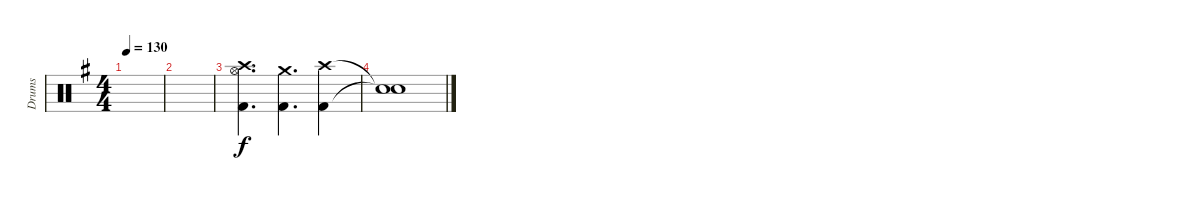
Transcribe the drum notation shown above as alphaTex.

\track ("Drums" "Drums") {instrument percussion}
\staff {score}
\articulation defaults
\ts (4 4)
\tempo 130
\clef neutral
\ks g
|
|
("Hi-Hat (open)" "Crash high (hit)" "Kick (hit) 2").4{d dy f} ("Crash medium (hit)" "Kick (hit) 2").4{d} ("Crash high (hit)" "Kick (hit) 2").4 |
("Snare (hit)"{t} "Snare (hit)"{t}).1
